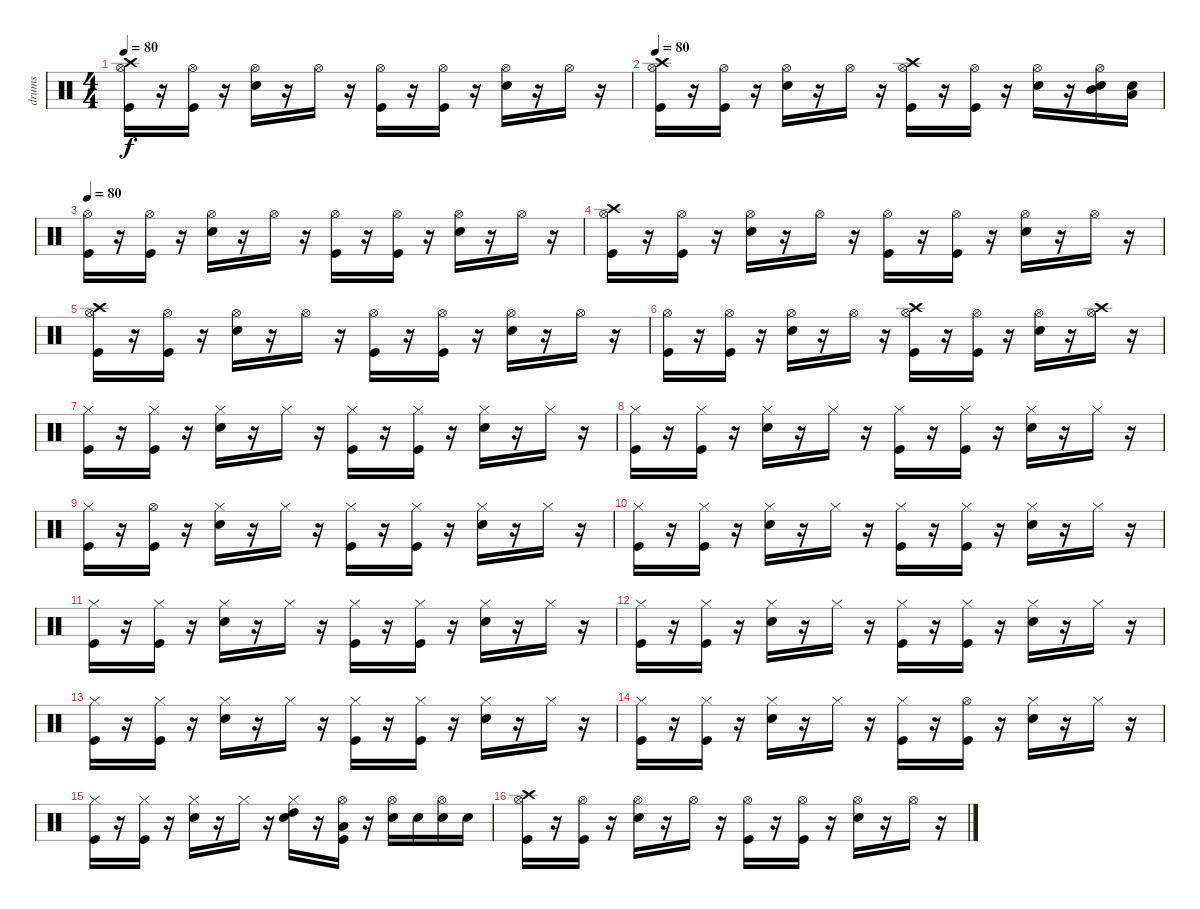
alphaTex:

\track ("drums" "drums") {instrument percussion}
\staff {score}
\articulation defaults
\ts (4 4)
\tempo 80
\clef neutral
\ks c
("Hi-Hat (open)" "Kick (hit)" "Crash high (hit)").16{dy f} r.16 ("Hi-Hat (open)" "Kick (hit)").16 r.16 ("Electric Snare (hit)" "Hi-Hat (open)").16 r.16 "Hi-Hat (open)".16 r.16 ("Kick (hit)" "Hi-Hat (open)").16 r.16 ("Hi-Hat (open)" "Kick (hit)").16 r.16 ("Electric Snare (hit)" "Hi-Hat (open)").16 r.16 "Hi-Hat (open)".16 r.16 |
\tempo 80
("Hi-Hat (open)" "Kick (hit)" "Crash high (hit)").16 r.16 ("Hi-Hat (open)" "Kick (hit)").16 r.16 ("Electric Snare (hit)" "Hi-Hat (open)").16 r.16 "Hi-Hat (open)".16 r.16 ("Kick (hit)" "Hi-Hat (open)" "Crash high (hit)").16 r.16 ("Hi-Hat (open)" "Kick (hit)").16 r.16 ("Electric Snare (hit)" "Hi-Hat (open)").16 r.16 ("Electric Snare (hit)" "Hi-Hat (open)" "Mid Tom (hit)").16 ("Electric Snare (hit)" "Low Tom (hit)").16 |
\tempo 80
("Hi-Hat (open)" "Kick (hit)").16 r.16 ("Hi-Hat (open)" "Kick (hit)").16 r.16 ("Electric Snare (hit)" "Hi-Hat (open)").16 r.16 "Hi-Hat (open)".16 r.16 ("Kick (hit)" "Hi-Hat (open)").16 r.16 ("Hi-Hat (open)" "Kick (hit)").16 r.16 ("Electric Snare (hit)" "Hi-Hat (open)").16 r.16 "Hi-Hat (open)".16 r.16 |
("Hi-Hat (open)" "Kick (hit)" "Crash high (hit)").16 r.16 ("Hi-Hat (open)" "Kick (hit)").16 r.16 ("Electric Snare (hit)" "Hi-Hat (open)").16 r.16 "Hi-Hat (open)".16 r.16 ("Kick (hit)" "Hi-Hat (open)").16 r.16 ("Hi-Hat (open)" "Kick (hit)").16 r.16 ("Electric Snare (hit)" "Hi-Hat (open)").16 r.16 "Hi-Hat (open)".16 r.16 |
("Hi-Hat (open)" "Kick (hit)" "Crash high (hit)").16 r.16 ("Hi-Hat (open)" "Kick (hit)").16 r.16 ("Electric Snare (hit)" "Hi-Hat (open)").16 r.16 "Hi-Hat (open)".16 r.16 ("Kick (hit)" "Hi-Hat (open)").16 r.16 ("Hi-Hat (open)" "Kick (hit)").16 r.16 ("Electric Snare (hit)" "Hi-Hat (open)").16 r.16 "Hi-Hat (open)".16 r.16 |
("Hi-Hat (open)" "Kick (hit)").16 r.16 ("Hi-Hat (open)" "Kick (hit)").16 r.16 ("Electric Snare (hit)" "Hi-Hat (open)").16 r.16 "Hi-Hat (open)".16 r.16 ("Kick (hit)" "Hi-Hat (open)" "Crash high (hit)").16 r.16 ("Hi-Hat (open)" "Kick (hit)").16 r.16 ("Electric Snare (hit)" "Hi-Hat (open)").16 r.16 ("Hi-Hat (open)" "Crash high (hit)").16 r.16 |
("Kick (hit)" "Hi-Hat (closed)").16 r.16 ("Hi-Hat (closed)" "Kick (hit)").16 r.16 ("Hi-Hat (closed)" "Electric Snare (hit)").16 r.16 "Hi-Hat (closed)".16 r.16 ("Kick (hit)" "Hi-Hat (closed)").16 r.16 ("Hi-Hat (closed)" "Kick (hit)").16 r.16 ("Hi-Hat (closed)" "Electric Snare (hit)").16 r.16 "Hi-Hat (closed)".16 r.16 |
("Kick (hit)" "Hi-Hat (closed)").16 r.16 ("Hi-Hat (closed)" "Kick (hit)").16 r.16 ("Hi-Hat (closed)" "Electric Snare (hit)").16 r.16 "Hi-Hat (closed)".16 r.16 ("Kick (hit)" "Hi-Hat (closed)").16 r.16 ("Hi-Hat (closed)" "Kick (hit)").16 r.16 ("Hi-Hat (closed)" "Electric Snare (hit)").16 r.16 "Hi-Hat (closed)".16 r.16 |
("Kick (hit)" "Hi-Hat (closed)").16 r.16 ("Hi-Hat (open)" "Kick (hit)").16 r.16 ("Hi-Hat (closed)" "Electric Snare (hit)").16 r.16 "Hi-Hat (closed)".16 r.16 ("Kick (hit)" "Hi-Hat (closed)").16 r.16 ("Hi-Hat (closed)" "Kick (hit)").16 r.16 ("Hi-Hat (closed)" "Electric Snare (hit)").16 r.16 "Hi-Hat (closed)".16 r.16 |
("Kick (hit)" "Hi-Hat (closed)").16 r.16 ("Hi-Hat (closed)" "Kick (hit)").16 r.16 ("Hi-Hat (closed)" "Electric Snare (hit)").16 r.16 "Hi-Hat (closed)".16 r.16 ("Kick (hit)" "Hi-Hat (closed)").16 r.16 ("Hi-Hat (closed)" "Kick (hit)").16 r.16 ("Hi-Hat (closed)" "Electric Snare (hit)").16 r.16 "Hi-Hat (closed)".16 r.16 |
("Kick (hit)" "Hi-Hat (closed)").16 r.16 ("Hi-Hat (closed)" "Kick (hit)").16 r.16 ("Hi-Hat (closed)" "Electric Snare (hit)").16 r.16 "Hi-Hat (closed)".16 r.16 ("Kick (hit)" "Hi-Hat (closed)").16 r.16 ("Hi-Hat (closed)" "Kick (hit)").16 r.16 ("Hi-Hat (closed)" "Electric Snare (hit)").16 r.16 "Hi-Hat (closed)".16 r.16 |
("Kick (hit)" "Hi-Hat (closed)").16 r.16 ("Hi-Hat (closed)" "Kick (hit)").16 r.16 ("Hi-Hat (closed)" "Electric Snare (hit)").16 r.16 "Hi-Hat (closed)".16 r.16 ("Kick (hit)" "Hi-Hat (closed)").16 r.16 ("Hi-Hat (closed)" "Kick (hit)").16 r.16 ("Hi-Hat (closed)" "Electric Snare (hit)").16 r.16 "Hi-Hat (closed)".16 r.16 |
("Kick (hit)" "Hi-Hat (closed)").16 r.16 ("Hi-Hat (closed)" "Kick (hit)").16 r.16 ("Hi-Hat (closed)" "Electric Snare (hit)").16 r.16 "Hi-Hat (closed)".16 r.16 ("Kick (hit)" "Hi-Hat (closed)").16 r.16 ("Hi-Hat (closed)" "Kick (hit)").16 r.16 ("Hi-Hat (closed)" "Electric Snare (hit)").16 r.16 "Hi-Hat (closed)".16 r.16 |
("Kick (hit)" "Hi-Hat (closed)").16 r.16 ("Hi-Hat (closed)" "Kick (hit)").16 r.16 ("Hi-Hat (closed)" "Electric Snare (hit)").16 r.16 "Hi-Hat (closed)".16 r.16 ("Kick (hit)" "Hi-Hat (closed)").16 r.16 ("Hi-Hat (open)" "Kick (hit)").16 r.16 ("Hi-Hat (closed)" "Electric Snare (hit)").16 r.16 "Hi-Hat (closed)".16 r.16 |
("Kick (hit)" "Hi-Hat (closed)").16 r.16 ("Hi-Hat (closed)" "Kick (hit)").16 r.16 ("Hi-Hat (closed)" "Electric Snare (hit)").16 r.16 "Hi-Hat (closed)".16 r.16 ("Hi-Hat (closed)" "Electric Snare (hit)" "High Tom (hit)").16 r.16 ("Low Tom (hit)" "Kick (hit)" "Hi-Hat (open)").16 r.16 ("Hi-Hat (open)" "Electric Snare (hit)").16 "Electric Snare (hit)".16 ("Hi-Hat (open)" "Electric Snare (hit)").16 "Electric Snare (hit)".16 |
("Hi-Hat (open)" "Kick (hit)" "Crash high (hit)").16 r.16 ("Hi-Hat (open)" "Kick (hit)").16 r.16 ("Electric Snare (hit)" "Hi-Hat (open)").16 r.16 "Hi-Hat (open)".16 r.16 ("Kick (hit)" "Hi-Hat (open)").16 r.16 ("Hi-Hat (open)" "Kick (hit)").16 r.16 ("Electric Snare (hit)" "Hi-Hat (open)").16 r.16 "Hi-Hat (open)".16 r.16
